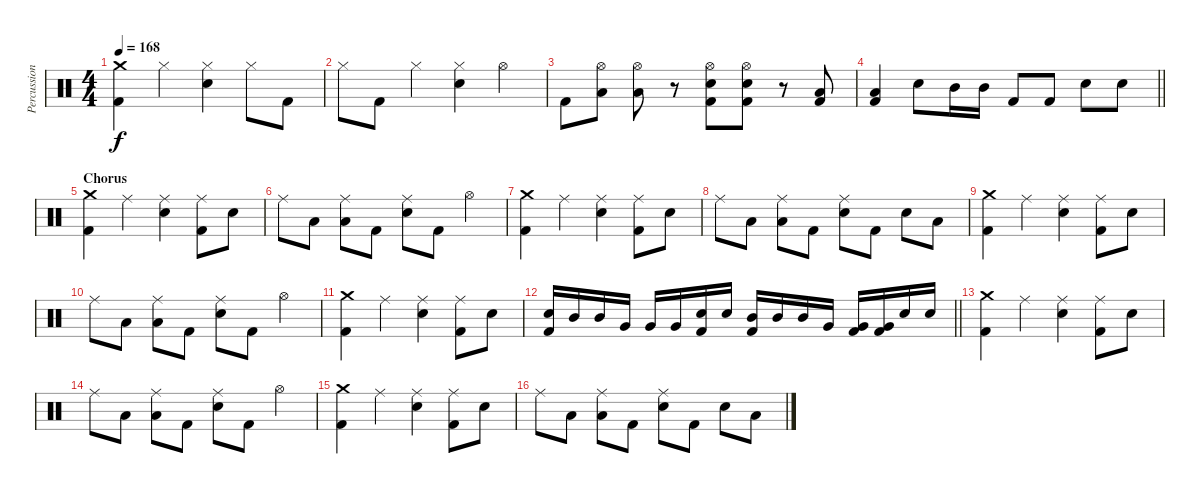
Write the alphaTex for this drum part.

\track ("Percussion" "Percussion") {instrument percussion}
\staff {score}
\articulation defaults
\ts (4 4)
\tempo 168
\clef neutral
\ks c
("Crash medium (hit)" "Kick (hit) 2").4{dy f} "Hi-Hat (closed)".4 ("Hi-Hat (closed)" "Electric Snare (hit)").4 "Hi-Hat (closed)".8 "Kick (hit) 2".8 |
"Hi-Hat (closed)".8 "Kick (hit) 2".8 "Hi-Hat (closed)".4 ("Hi-Hat (closed)" "Electric Snare (hit)").4 "Hi-Hat (open)".4 |
"Kick (hit) 2".8 ("Hi-Hat (open)" "Low Tom (hit)").8 ("Hi-Hat (open)" "Low Tom (hit)").8 r.8 ("Hi-Hat (open)" "Electric Snare (hit)" "Kick (hit) 2").8 ("Hi-Hat (open)" "Electric Snare (hit)" "Kick (hit) 2").8 r.8 ("Low Floor Tom (hit)" "Kick (hit) 2").8 |
\barLineRight lightlight
("Low Floor Tom (hit)" "Kick (hit) 2").4 "Electric Snare (hit)".8 "Mid Tom (hit)".16 "Mid Tom (hit)".16 "Kick (hit) 2".8 "Kick (hit) 2".8 "Electric Snare (hit)".8 "Electric Snare (hit)".8 |
\section ("" "Chorus")
("Crash medium (hit)" "Kick (hit) 2").4 "Ride (middle)".4 ("Ride (middle)" "Electric Snare (hit)").4 ("Ride (middle)" "Kick (hit) 2").8 "Electric Snare (hit)".8 |
"Ride (middle)".8 "Low Tom (hit)".8 ("Ride (middle)" "Low Tom (hit)").8 "Kick (hit) 2".8 ("Ride (middle)" "Electric Snare (hit)").8 "Kick (hit) 2".8 "Hi-Hat (open)".4 |
("Crash medium (hit)" "Kick (hit) 2").4 "Ride (middle)".4 ("Ride (middle)" "Electric Snare (hit)").4 ("Ride (middle)" "Kick (hit) 2").8 "Electric Snare (hit)".8 |
"Ride (middle)".8 "Low Tom (hit)".8 ("Ride (middle)" "Low Tom (hit)").8 "Kick (hit) 2".8 ("Ride (middle)" "Electric Snare (hit)").8 "Kick (hit) 2".8 "Electric Snare (hit)".8 "Low Tom (hit)".8 |
("Crash medium (hit)" "Kick (hit) 2").4 "Ride (middle)".4 ("Ride (middle)" "Electric Snare (hit)").4 ("Ride (middle)" "Kick (hit) 2").8 "Electric Snare (hit)".8 |
"Ride (middle)".8 "Low Tom (hit)".8 ("Ride (middle)" "Low Tom (hit)").8 "Kick (hit) 2".8 ("Ride (middle)" "Electric Snare (hit)").8 "Kick (hit) 2".8 "Hi-Hat (open)".4 |
("Crash medium (hit)" "Kick (hit) 2").4 "Ride (middle)".4 ("Ride (middle)" "Electric Snare (hit)").4 ("Ride (middle)" "Kick (hit) 2").8 "Electric Snare (hit)".8 |
\barLineRight lightlight
("Electric Snare (hit)" "Kick (hit) 2").16 "Mid Tom (hit)".16 "Mid Tom (hit)".16 "Very Low Tom (hit)".16 "Very Low Tom (hit)".16 "Very Low Tom (hit)".16 ("Electric Snare (hit)" "Kick (hit) 2").16 "Electric Snare (hit)".16 ("Mid Tom (hit)" "Kick (hit) 2").16 "Mid Tom (hit)".16 "Mid Tom (hit)".16 "Very Low Tom (hit)".16 ("Very Low Tom (hit)" "Kick (hit) 2").16 ("Very Low Tom (hit)" "Kick (hit) 2").16 "Electric Snare (hit)".16 "Electric Snare (hit)".16 |
\section ("" "")
("Crash medium (hit)" "Kick (hit) 2").4 "Ride (middle)".4 ("Ride (middle)" "Electric Snare (hit)").4 ("Ride (middle)" "Kick (hit) 2").8 "Electric Snare (hit)".8 |
"Ride (middle)".8 "Low Tom (hit)".8 ("Ride (middle)" "Low Tom (hit)").8 "Kick (hit) 2".8 ("Ride (middle)" "Electric Snare (hit)").8 "Kick (hit) 2".8 "Hi-Hat (open)".4 |
("Crash medium (hit)" "Kick (hit) 2").4 "Ride (middle)".4 ("Ride (middle)" "Electric Snare (hit)").4 ("Ride (middle)" "Kick (hit) 2").8 "Electric Snare (hit)".8 |
"Ride (middle)".8 "Low Tom (hit)".8 ("Ride (middle)" "Low Tom (hit)").8 "Kick (hit) 2".8 ("Ride (middle)" "Electric Snare (hit)").8 "Kick (hit) 2".8 "Electric Snare (hit)".8 "Low Tom (hit)".8
